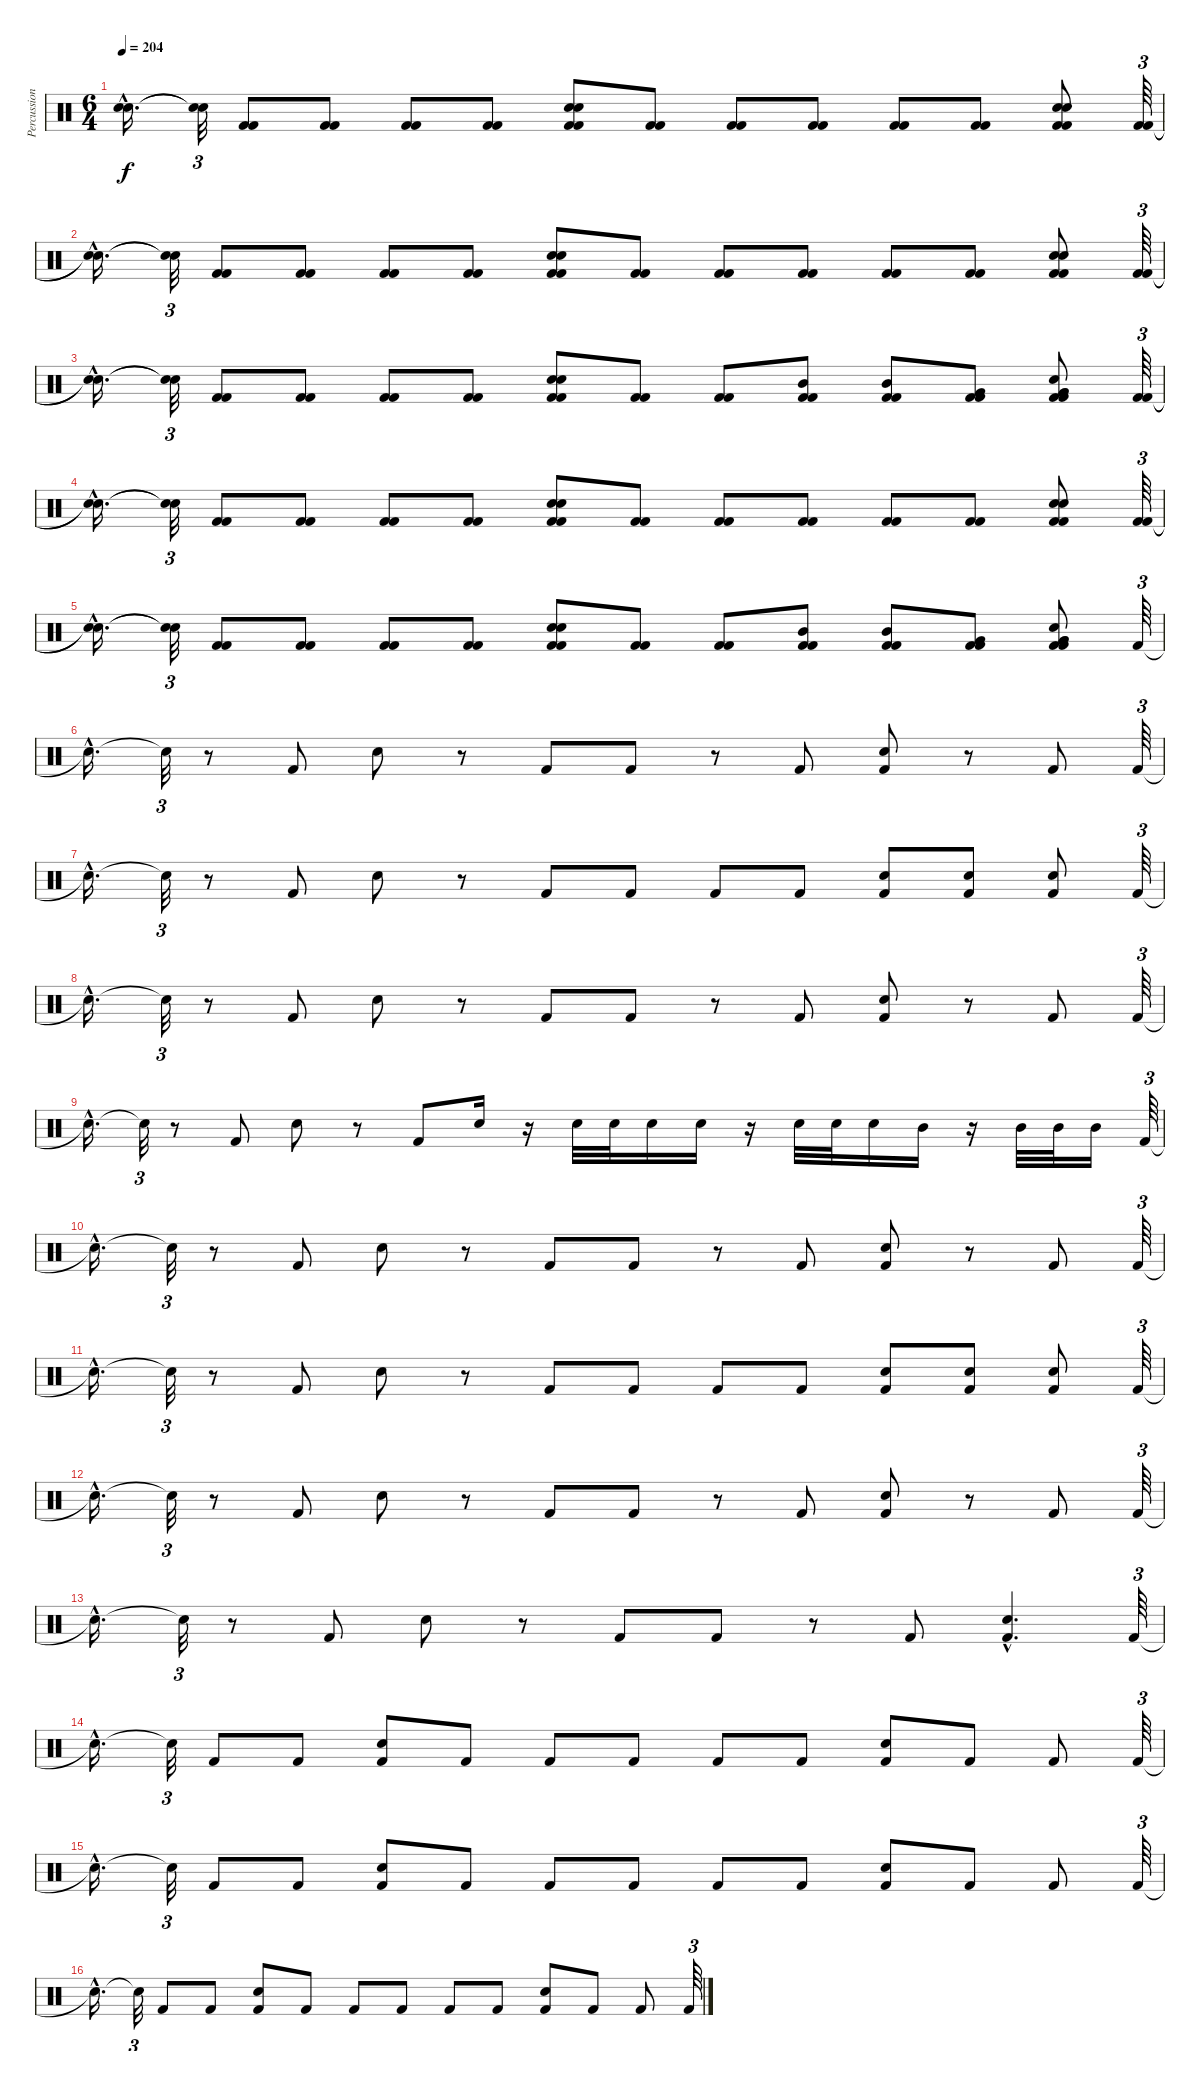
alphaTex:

\track ("Percussions" "Percussion") {instrument percussion}
\staff {score}
\articulation defaults
\ts (6 4)
\tempo 204
\clef neutral
\ks c
("Snare (hit)"{hac t} "Snare (hit)"{hac t}).16{d dy f} ("Snare (hit)"{t} "Snare (hit)"{t}).32{tu (3 2)} ("Kick (hit) 2" "Kick (hit) 2").8 ("Kick (hit) 2" "Kick (hit) 2").8 ("Kick (hit) 2" "Kick (hit) 2").8 ("Kick (hit) 2" "Kick (hit) 2").8 ("Electric Snare (hit)" "Electric Snare (hit)" "Kick (hit) 2" "Kick (hit) 2").8 ("Kick (hit) 2" "Kick (hit) 2").8 ("Kick (hit) 2" "Kick (hit) 2").8 ("Kick (hit) 2" "Kick (hit) 2").8 ("Kick (hit) 2" "Kick (hit) 2").8 ("Kick (hit) 2" "Kick (hit) 2").8 ("Electric Snare (hit)" "Electric Snare (hit)" "Kick (hit) 2" "Kick (hit) 2").8 ("Kick (hit) 2" "Kick (hit) 2").64{tu (3 2)} |
("Snare (hit)"{hac t} "Snare (hit)"{hac t}).16{d} ("Snare (hit)"{t} "Snare (hit)"{t}).32{tu (3 2)} ("Kick (hit) 2" "Kick (hit) 2").8 ("Kick (hit) 2" "Kick (hit) 2").8 ("Kick (hit) 2" "Kick (hit) 2").8 ("Kick (hit) 2" "Kick (hit) 2").8 ("Electric Snare (hit)" "Electric Snare (hit)" "Kick (hit) 2" "Kick (hit) 2").8 ("Kick (hit) 2" "Kick (hit) 2").8 ("Kick (hit) 2" "Kick (hit) 2").8 ("Kick (hit) 2" "Kick (hit) 2").8 ("Kick (hit) 2" "Kick (hit) 2").8 ("Kick (hit) 2" "Kick (hit) 2").8 ("Electric Snare (hit)" "Electric Snare (hit)" "Kick (hit) 2" "Kick (hit) 2").8 ("Kick (hit) 2" "Kick (hit) 2").64{tu (3 2)} |
("Snare (hit)"{hac t} "Snare (hit)"{hac t}).16{d} ("Snare (hit)"{t} "Snare (hit)"{t}).32{tu (3 2)} ("Kick (hit) 2" "Kick (hit) 2").8 ("Kick (hit) 2" "Kick (hit) 2").8 ("Kick (hit) 2" "Kick (hit) 2").8 ("Kick (hit) 2" "Kick (hit) 2").8 ("Electric Snare (hit)" "Electric Snare (hit)" "Kick (hit) 2" "Kick (hit) 2").8 ("Kick (hit) 2" "Kick (hit) 2").8 ("Kick (hit) 2" "Kick (hit) 2").8 ("Mid Tom (hit)" "Kick (hit) 2" "Kick (hit) 2").8 ("Mid Tom (hit)" "Kick (hit) 2" "Kick (hit) 2").8 ("Very Low Tom (hit)" "Kick (hit) 2" "Kick (hit) 2").8 ("Electric Snare (hit)" "Very Low Tom (hit)" "Very Low Tom (hit)" "Kick (hit) 2" "Kick (hit) 2").8 ("Kick (hit) 2" "Kick (hit) 2").64{tu (3 2)} |
("Snare (hit)"{hac t} "Snare (hit)"{hac t}).16{d} ("Snare (hit)"{t} "Snare (hit)"{t}).32{tu (3 2)} ("Kick (hit) 2" "Kick (hit) 2").8 ("Kick (hit) 2" "Kick (hit) 2").8 ("Kick (hit) 2" "Kick (hit) 2").8 ("Kick (hit) 2" "Kick (hit) 2").8 ("Electric Snare (hit)" "Electric Snare (hit)" "Kick (hit) 2" "Kick (hit) 2").8 ("Kick (hit) 2" "Kick (hit) 2").8 ("Kick (hit) 2" "Kick (hit) 2").8 ("Kick (hit) 2" "Kick (hit) 2").8 ("Kick (hit) 2" "Kick (hit) 2").8 ("Kick (hit) 2" "Kick (hit) 2").8 ("Electric Snare (hit)" "Electric Snare (hit)" "Kick (hit) 2" "Kick (hit) 2").8 ("Kick (hit) 2" "Kick (hit) 2").64{tu (3 2)} |
("Snare (hit)"{hac t} "Snare (hit)"{hac t}).16{d} ("Snare (hit)"{t} "Snare (hit)"{t}).32{tu (3 2)} ("Kick (hit) 2" "Kick (hit) 2").8 ("Kick (hit) 2" "Kick (hit) 2").8 ("Kick (hit) 2" "Kick (hit) 2").8 ("Kick (hit) 2" "Kick (hit) 2").8 ("Electric Snare (hit)" "Electric Snare (hit)" "Kick (hit) 2" "Kick (hit) 2").8 ("Kick (hit) 2" "Kick (hit) 2").8 ("Kick (hit) 2" "Kick (hit) 2").8 ("Mid Tom (hit)" "Kick (hit) 2" "Kick (hit) 2").8 ("Mid Tom (hit)" "Kick (hit) 2" "Kick (hit) 2").8 ("Very Low Tom (hit)" "Kick (hit) 2" "Kick (hit) 2").8 ("Electric Snare (hit)" "Very Low Tom (hit)" "Very Low Tom (hit)" "Kick (hit) 2" "Kick (hit) 2").8 "Kick (hit) 2".64{tu (3 2)} |
"Snare (hit)"{hac t}.16{d} "Snare (hit)"{t}.32{tu (3 2)} r.8 "Kick (hit) 2".8 "Electric Snare (hit)".8 r.8 "Kick (hit) 2".8 "Kick (hit) 2".8 r.8 "Kick (hit) 2".8 ("Electric Snare (hit)" "Kick (hit) 2").8 r.8 "Kick (hit) 2".8 "Kick (hit) 2".64{tu (3 2)} |
"Snare (hit)"{hac t}.16{d} "Snare (hit)"{t}.32{tu (3 2)} r.8 "Kick (hit) 2".8 "Electric Snare (hit)".8 r.8 "Kick (hit) 2".8 "Kick (hit) 2".8 "Kick (hit) 2".8 "Kick (hit) 2".8 ("Electric Snare (hit)" "Kick (hit) 2").8 ("Electric Snare (hit)" "Kick (hit) 2").8 ("Electric Snare (hit)" "Kick (hit) 2").8 "Kick (hit) 2".64{tu (3 2)} |
"Snare (hit)"{hac t}.16{d} "Snare (hit)"{t}.32{tu (3 2)} r.8 "Kick (hit) 2".8 "Electric Snare (hit)".8 r.8 "Kick (hit) 2".8 "Kick (hit) 2".8 r.8 "Kick (hit) 2".8 ("Electric Snare (hit)" "Kick (hit) 2").8 r.8 "Kick (hit) 2".8 "Kick (hit) 2".64{tu (3 2)} |
"Snare (hit)"{hac t}.16{d} "Snare (hit)"{t}.32{tu (3 2)} r.8 "Kick (hit) 2".8 "Electric Snare (hit)".8 r.8 "Kick (hit) 2".8 "Electric Snare (hit)".16 r.16 "Electric Snare (hit)".32 "Electric Snare (hit)".32 "Electric Snare (hit)".16 "Snare (hit) 2".16 r.16 "Snare (hit) 2".32 "Snare (hit) 2".32 "Snare (hit) 2".16 "Mid Tom (hit)".16 r.16 "Mid Tom (hit)".32 "Mid Tom (hit)".32 "Mid Tom (hit)".16 "Kick (hit) 2".64{tu (3 2)} |
"Snare (hit)"{hac t}.16{d} "Snare (hit)"{t}.32{tu (3 2)} r.8 "Kick (hit) 2".8 "Electric Snare (hit)".8 r.8 "Kick (hit) 2".8 "Kick (hit) 2".8 r.8 "Kick (hit) 2".8 ("Electric Snare (hit)" "Kick (hit) 2").8 r.8 "Kick (hit) 2".8 "Kick (hit) 2".64{tu (3 2)} |
"Snare (hit)"{hac t}.16{d} "Snare (hit)"{t}.32{tu (3 2)} r.8 "Kick (hit) 2".8 "Electric Snare (hit)".8 r.8 "Kick (hit) 2".8 "Kick (hit) 2".8 "Kick (hit) 2".8 "Kick (hit) 2".8 ("Electric Snare (hit)" "Kick (hit) 2").8 ("Electric Snare (hit)" "Kick (hit) 2").8 ("Electric Snare (hit)" "Kick (hit) 2").8 "Kick (hit) 2".64{tu (3 2)} |
"Snare (hit)"{hac t}.16{d} "Snare (hit)"{t}.32{tu (3 2)} r.8 "Kick (hit) 2".8 "Electric Snare (hit)".8 r.8 "Kick (hit) 2".8 "Kick (hit) 2".8 r.8 "Kick (hit) 2".8 ("Electric Snare (hit)" "Kick (hit) 2").8 r.8 "Kick (hit) 2".8 "Kick (hit) 2".64{tu (3 2)} |
"Snare (hit)"{hac t}.16{d} "Snare (hit)"{t}.32{tu (3 2)} r.8 "Kick (hit) 2".8 "Electric Snare (hit)".8 r.8 "Kick (hit) 2".8 "Kick (hit) 2".8 r.8 "Kick (hit) 2".8 ("Electric Snare (hit)"{hac} "Kick (hit) 2").4{d} "Kick (hit) 2".64{tu (3 2)} |
"Snare (hit)"{hac t}.16{d} "Snare (hit)"{t}.32{tu (3 2)} "Kick (hit) 2".8 "Kick (hit) 2".8 ("Electric Snare (hit)" "Kick (hit) 2").8 "Kick (hit) 2".8 "Kick (hit) 2".8 "Kick (hit) 2".8 "Kick (hit) 2".8 "Kick (hit) 2".8 ("Electric Snare (hit)" "Kick (hit) 2").8 "Kick (hit) 2".8 "Kick (hit) 2".8 "Kick (hit) 2".64{tu (3 2)} |
"Snare (hit)"{hac t}.16{d} "Snare (hit)"{t}.32{tu (3 2)} "Kick (hit) 2".8 "Kick (hit) 2".8 ("Electric Snare (hit)" "Kick (hit) 2").8 "Kick (hit) 2".8 "Kick (hit) 2".8 "Kick (hit) 2".8 "Kick (hit) 2".8 "Kick (hit) 2".8 ("Electric Snare (hit)" "Kick (hit) 2").8 "Kick (hit) 2".8 "Kick (hit) 2".8 "Kick (hit) 2".64{tu (3 2)} |
"Snare (hit)"{hac t}.16{d} "Snare (hit)"{t}.32{tu (3 2)} "Kick (hit) 2".8 "Kick (hit) 2".8 ("Electric Snare (hit)" "Kick (hit) 2").8 "Kick (hit) 2".8 "Kick (hit) 2".8 "Kick (hit) 2".8 "Kick (hit) 2".8 "Kick (hit) 2".8 ("Electric Snare (hit)" "Kick (hit) 2").8 "Kick (hit) 2".8 "Kick (hit) 2".8 "Kick (hit) 2".64{tu (3 2)}
